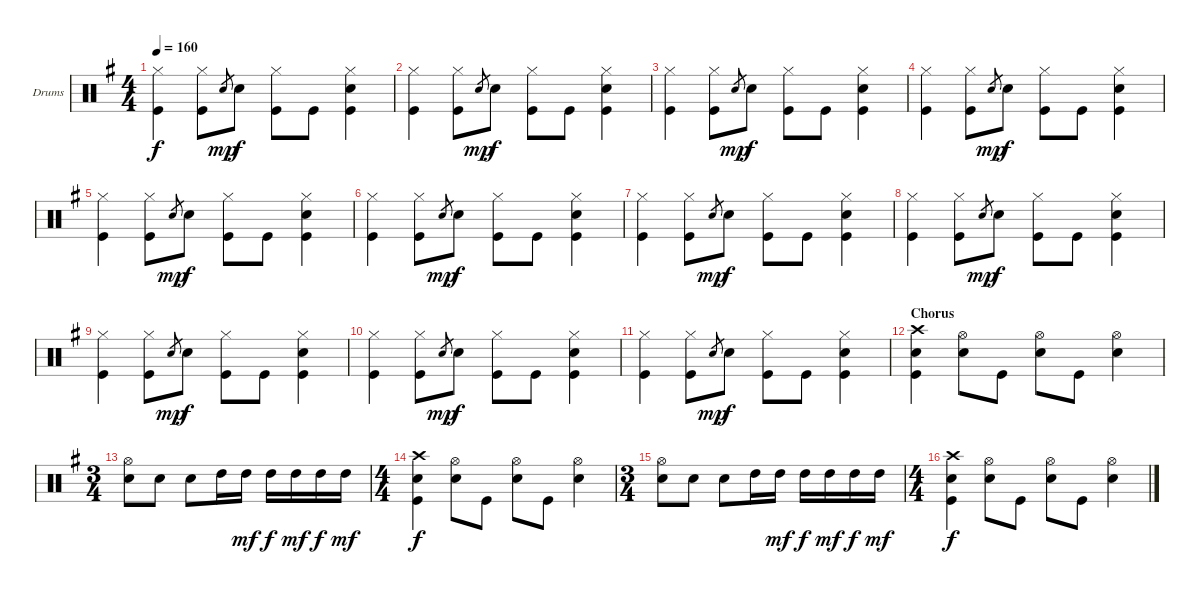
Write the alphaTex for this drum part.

\defaultSystemsLayout 4
\bracketExtendMode groupsimilarinstruments
\firstSystemTrackNameOrientation horizontal
\otherSystemsTrackNameOrientation horizontal
\track ("Drumkit" "Drums") {instrument percussion}
\staff {score}
\articulation defaults
\ts (4 4)
\tempo 160
\clef neutral
\scale
1.04288
\ks g
("Hi-Hat (closed)" "Kick (hit)").4{dy f} ("Hi-Hat (closed)" "Kick (hit)").8 "Snare (hit) 2".8{gr dy mp} "Snare (hit) 2".8{dy f} ("Hi-Hat (closed)" "Kick (hit)").8 "Kick (hit)".8 ("Hi-Hat (closed)" "Snare (hit) 2" "Kick (hit)").4 |
\scale
0.957125 ("Hi-Hat (closed)" "Kick (hit)").4 ("Hi-Hat (closed)" "Kick (hit)").8 "Snare (hit) 2".8{gr dy mp} "Snare (hit) 2".8{dy f} ("Hi-Hat (closed)" "Kick (hit)").8 "Kick (hit)".8 ("Hi-Hat (closed)" "Snare (hit) 2" "Kick (hit)").4 |
\scale
1.04288 ("Hi-Hat (closed)" "Kick (hit)").4 ("Hi-Hat (closed)" "Kick (hit)").8 "Snare (hit) 2".8{gr dy mp} "Snare (hit) 2".8{dy f} ("Hi-Hat (closed)" "Kick (hit)").8 "Kick (hit)".8 ("Hi-Hat (closed)" "Snare (hit) 2" "Kick (hit)").4 |
\scale
0.957125 ("Hi-Hat (closed)" "Kick (hit)").4 ("Hi-Hat (closed)" "Kick (hit)").8 "Snare (hit) 2".8{gr dy mp} "Snare (hit) 2".8{dy f} ("Hi-Hat (closed)" "Kick (hit)").8 "Kick (hit)".8 ("Hi-Hat (closed)" "Snare (hit) 2" "Kick (hit)").4 |
\scale
1.04288 ("Hi-Hat (closed)" "Kick (hit)").4 ("Hi-Hat (closed)" "Kick (hit)").8 "Snare (hit) 2".8{gr dy mp} "Snare (hit) 2".8{dy f} ("Hi-Hat (closed)" "Kick (hit)").8 "Kick (hit)".8 ("Hi-Hat (closed)" "Snare (hit) 2" "Kick (hit)").4 |
\scale
0.957125 ("Hi-Hat (closed)" "Kick (hit)").4 ("Hi-Hat (closed)" "Kick (hit)").8 "Snare (hit) 2".8{gr dy mp} "Snare (hit) 2".8{dy f} ("Hi-Hat (closed)" "Kick (hit)").8 "Kick (hit)".8 ("Hi-Hat (closed)" "Snare (hit) 2" "Kick (hit)").4 |
\scale
1.04288 ("Hi-Hat (closed)" "Kick (hit)").4 ("Hi-Hat (closed)" "Kick (hit)").8 "Snare (hit) 2".8{gr dy mp} "Snare (hit) 2".8{dy f} ("Hi-Hat (closed)" "Kick (hit)").8 "Kick (hit)".8 ("Hi-Hat (closed)" "Snare (hit) 2" "Kick (hit)").4 |
\scale
0.957125 ("Hi-Hat (closed)" "Kick (hit)").4 ("Hi-Hat (closed)" "Kick (hit)").8 "Snare (hit) 2".8{gr dy mp} "Snare (hit) 2".8{dy f} ("Hi-Hat (closed)" "Kick (hit)").8 "Kick (hit)".8 ("Hi-Hat (closed)" "Snare (hit) 2" "Kick (hit)").4 |
\scale
1.04288 ("Hi-Hat (closed)" "Kick (hit)").4 ("Hi-Hat (closed)" "Kick (hit)").8 "Snare (hit) 2".8{gr dy mp} "Snare (hit) 2".8{dy f} ("Hi-Hat (closed)" "Kick (hit)").8 "Kick (hit)".8 ("Hi-Hat (closed)" "Snare (hit) 2" "Kick (hit)").4 |
\scale
0.957125 ("Hi-Hat (closed)" "Kick (hit)").4 ("Hi-Hat (closed)" "Kick (hit)").8 "Snare (hit) 2".8{gr dy mp} "Snare (hit) 2".8{dy f} ("Hi-Hat (closed)" "Kick (hit)").8 "Kick (hit)".8 ("Hi-Hat (closed)" "Snare (hit) 2" "Kick (hit)").4 |
\scale
1.04288 ("Hi-Hat (closed)" "Kick (hit)").4 ("Hi-Hat (closed)" "Kick (hit)").8 "Snare (hit) 2".8{gr dy mp} "Snare (hit) 2".8{dy f} ("Hi-Hat (closed)" "Kick (hit)").8 "Kick (hit)".8 ("Hi-Hat (closed)" "Snare (hit) 2" "Kick (hit)").4 |
\section ("" "Chorus")
\scale
0.957125 ("Crash high (hit)" "Snare (hit) 2" "Kick (hit)").4 ("Hi-Hat (open)" "Snare (hit) 2").8 "Kick (hit)".8 ("Hi-Hat (open)" "Snare (hit) 2").8 "Kick (hit)".8 ("Hi-Hat (open)" "Snare (hit) 2").4 |
\ts (3 4)
\scale
1.07314 ("Hi-Hat (open)" "Snare (hit) 2").8 "Snare (hit) 2".8 "Snare (hit) 2".8 "High Tom (hit)".16 "High Tom (hit)".16{dy mf} "High Tom (hit)".16{dy f} "High Tom (hit)".16{dy mf} "High Tom (hit)".16{dy f} "High Tom (hit)".16{dy mf} |
\ts (4 4)
\scale
0.92686 ("Crash high (hit)" "Snare (hit) 2" "Kick (hit)").4{dy f} ("Hi-Hat (open)" "Snare (hit) 2").8 "Kick (hit)".8 ("Hi-Hat (open)" "Snare (hit) 2").8 "Kick (hit)".8 ("Hi-Hat (open)" "Snare (hit) 2").4 |
\ts (3 4)
\scale
1.07314 ("Hi-Hat (open)" "Snare (hit) 2").8 "Snare (hit) 2".8 "Snare (hit) 2".8 "High Tom (hit)".16 "High Tom (hit)".16{dy mf} "High Tom (hit)".16{dy f} "High Tom (hit)".16{dy mf} "High Tom (hit)".16{dy f} "High Tom (hit)".16{dy mf} |
\ts (4 4)
\scale
0.92686 ("Crash high (hit)" "Snare (hit) 2" "Kick (hit)").4{dy f} ("Hi-Hat (open)" "Snare (hit) 2").8 "Kick (hit)".8 ("Hi-Hat (open)" "Snare (hit) 2").8 "Kick (hit)".8 ("Hi-Hat (open)" "Snare (hit) 2").4
